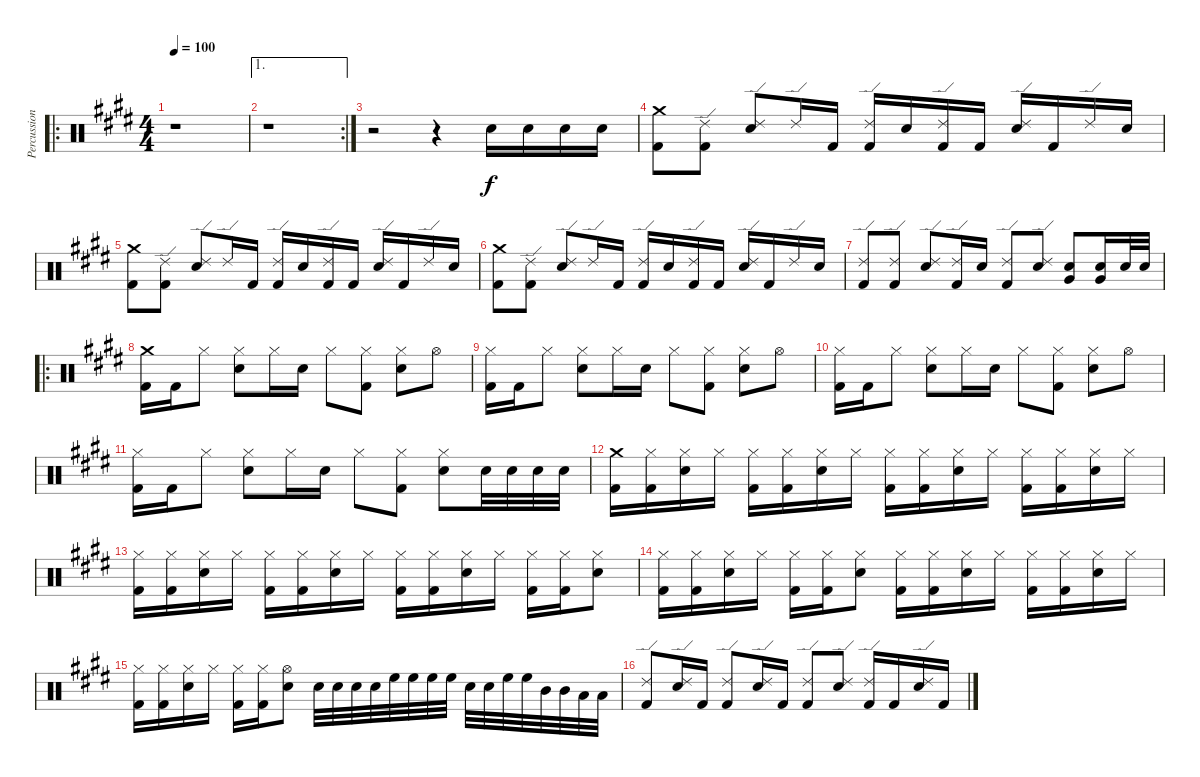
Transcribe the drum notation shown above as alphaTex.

\track ("Percussion" "Percussion") {instrument percussion}
\staff {score}
\articulation defaults
\ro
\ts (4 4)
\tempo 100
\clef neutral
\ks e
r.1{dy f} |
\ae 1
\rc 2
r.1 |
r.2 r.4 "Snare (hit) 2".16 "Snare (hit) 2".16 "Snare (hit) 2".16 "Snare (hit) 2".16 |
("Crash medium (hit)" "Kick (hit) 2").8 ("Ride (edge) 2" "Kick (hit) 2").8 ("Ride (edge) 2" "Snare (hit) 2").8 "Ride (edge) 2".16 "Kick (hit) 2".16 ("Ride (edge) 2" "Kick (hit) 2").16 "Snare (hit) 2".16 ("Ride (edge) 2" "Kick (hit) 2").16 "Kick (hit) 2".16 ("Ride (edge) 2" "Snare (hit) 2").16 "Kick (hit) 2".16 "Ride (edge) 2".16 "Snare (hit) 2".16 |
("Crash medium (hit)" "Kick (hit) 2").8 ("Ride (edge) 2" "Kick (hit) 2").8 ("Ride (edge) 2" "Snare (hit) 2").8 "Ride (edge) 2".16 "Kick (hit) 2".16 ("Ride (edge) 2" "Kick (hit) 2").16 "Snare (hit) 2".16 ("Ride (edge) 2" "Kick (hit) 2").16 "Kick (hit) 2".16 ("Ride (edge) 2" "Snare (hit) 2").16 "Kick (hit) 2".16 "Ride (edge) 2".16 "Snare (hit) 2".16 |
("Crash medium (hit)" "Kick (hit) 2").8 ("Ride (edge) 2" "Kick (hit) 2").8 ("Ride (edge) 2" "Snare (hit) 2").8 "Ride (edge) 2".16 "Kick (hit) 2".16 ("Ride (edge) 2" "Kick (hit) 2").16 "Snare (hit) 2".16 ("Ride (edge) 2" "Kick (hit) 2").16 "Kick (hit) 2".16 ("Ride (edge) 2" "Snare (hit) 2").16 "Kick (hit) 2".16 "Ride (edge) 2".16 "Snare (hit) 2".16 |
("Ride (edge) 2" "Kick (hit) 2").8 ("Ride (edge) 2" "Kick (hit) 2").8 ("Ride (edge) 2" "Snare (hit) 2").8 ("Ride (edge) 2" "Kick (hit) 2").16 "Snare (hit) 2".16 ("Ride (edge) 2" "Kick (hit) 2").8 ("Ride (edge) 2" "Snare (hit) 2").8 ("Snare (hit) 2" "Very Low Tom (hit)").8 ("Snare (hit) 2" "Very Low Tom (hit)").16 "Snare (hit) 2".32 "Snare (hit) 2".32 |
\ro
("Crash medium (hit)" "Kick (hit) 2").16 "Kick (hit) 2".16 "Hi-Hat (closed)".8 ("Hi-Hat (closed)" "Snare (hit) 2").8 "Hi-Hat (closed)".16 "Snare (hit) 2".16 "Hi-Hat (closed)".8 ("Hi-Hat (closed)" "Kick (hit) 2").8 ("Hi-Hat (closed)" "Snare (hit) 2").8 "Hi-Hat (open)".8 |
("Hi-Hat (closed)" "Kick (hit) 2").16 "Kick (hit) 2".16 "Hi-Hat (closed)".8 ("Hi-Hat (closed)" "Snare (hit) 2").8 "Hi-Hat (closed)".16 "Snare (hit) 2".16 "Hi-Hat (closed)".8 ("Hi-Hat (closed)" "Kick (hit) 2").8 ("Hi-Hat (closed)" "Snare (hit) 2").8 "Hi-Hat (open)".8 |
("Hi-Hat (closed)" "Kick (hit) 2").16 "Kick (hit) 2".16 "Hi-Hat (closed)".8 ("Hi-Hat (closed)" "Snare (hit) 2").8 "Hi-Hat (closed)".16 "Snare (hit) 2".16 "Hi-Hat (closed)".8 ("Hi-Hat (closed)" "Kick (hit) 2").8 ("Hi-Hat (closed)" "Snare (hit) 2").8 "Hi-Hat (open)".8 |
("Hi-Hat (closed)" "Kick (hit) 2").16 "Kick (hit) 2".16 "Hi-Hat (closed)".8 ("Hi-Hat (closed)" "Snare (hit) 2").8 "Hi-Hat (closed)".16 "Snare (hit) 2".16 "Hi-Hat (closed)".8 ("Hi-Hat (closed)" "Kick (hit) 2").8 ("Hi-Hat (closed)" "Snare (hit) 2").8 "Snare (hit) 2".32 "Snare (hit) 2".32 "Snare (hit) 2".32 "Snare (hit) 2".32 |
("Crash medium (hit)" "Kick (hit) 2").16 ("Hi-Hat (closed)" "Kick (hit) 2").16 ("Hi-Hat (closed)" "Snare (hit) 2").16 "Hi-Hat (closed)".16 ("Hi-Hat (closed)" "Kick (hit) 2").16 ("Hi-Hat (closed)" "Kick (hit) 2").16 ("Hi-Hat (closed)" "Snare (hit) 2").16 "Hi-Hat (closed)".16 ("Hi-Hat (closed)" "Kick (hit) 2").16 ("Hi-Hat (closed)" "Kick (hit) 2").16 ("Hi-Hat (closed)" "Snare (hit) 2").16 "Hi-Hat (closed)".16 ("Hi-Hat (closed)" "Kick (hit) 2").16 ("Hi-Hat (closed)" "Kick (hit) 2").16 ("Hi-Hat (closed)" "Snare (hit) 2").16 "Hi-Hat (closed)".16 |
("Hi-Hat (closed)" "Kick (hit) 2").16 ("Hi-Hat (closed)" "Kick (hit) 2").16 ("Hi-Hat (closed)" "Snare (hit) 2").16 "Hi-Hat (closed)".16 ("Hi-Hat (closed)" "Kick (hit) 2").16 ("Hi-Hat (closed)" "Kick (hit) 2").16 ("Hi-Hat (closed)" "Snare (hit) 2").16 "Hi-Hat (closed)".16 ("Hi-Hat (closed)" "Kick (hit) 2").16 ("Hi-Hat (closed)" "Kick (hit) 2").16 ("Hi-Hat (closed)" "Snare (hit) 2").16 "Hi-Hat (closed)".16 ("Hi-Hat (closed)" "Kick (hit) 2").16 ("Hi-Hat (closed)" "Kick (hit) 2").16 ("Hi-Hat (closed)" "Snare (hit) 2").8 |
("Hi-Hat (closed)" "Kick (hit) 2").16 ("Hi-Hat (closed)" "Kick (hit) 2").16 ("Hi-Hat (closed)" "Snare (hit) 2").16 "Hi-Hat (closed)".16 ("Hi-Hat (closed)" "Kick (hit) 2").16 ("Hi-Hat (closed)" "Kick (hit) 2").16 ("Hi-Hat (closed)" "Snare (hit) 2").8 ("Hi-Hat (closed)" "Kick (hit) 2").16 ("Hi-Hat (closed)" "Kick (hit) 2").16 ("Hi-Hat (closed)" "Snare (hit) 2").16 "Hi-Hat (closed)".16 ("Hi-Hat (closed)" "Kick (hit) 2").16 ("Hi-Hat (closed)" "Kick (hit) 2").16 ("Hi-Hat (closed)" "Snare (hit) 2").16 "Hi-Hat (closed)".16 |
("Hi-Hat (closed)" "Kick (hit) 2").16 ("Hi-Hat (closed)" "Kick (hit) 2").16 ("Hi-Hat (closed)" "Snare (hit) 2").16 "Hi-Hat (closed)".16 ("Hi-Hat (closed)" "Kick (hit) 2").16 ("Hi-Hat (closed)" "Kick (hit) 2").16 ("Hi-Hat (open)" "Snare (hit) 2").8 "Snare (hit) 2".32 "Snare (hit) 2".32 "Snare (hit) 2".32 "Snare (hit) 2".32 "High Floor Tom (hit)".32 "High Floor Tom (hit)".32 "High Floor Tom (hit)".32 "High Floor Tom (hit)".32 "Snare (hit) 2".32 "Snare (hit) 2".32 "High Floor Tom (hit)".32 "High Floor Tom (hit)".32 "Mid Tom (hit)".32 "Mid Tom (hit)".32 "Low Floor Tom (hit)".32 "Low Floor Tom (hit)".32 |
("Ride (edge) 2" "Kick (hit) 2").8 ("Ride (edge) 2" "Snare (hit) 2").16 "Kick (hit) 2".16 ("Ride (edge) 2" "Kick (hit) 2").8 ("Ride (edge) 2" "Snare (hit) 2").16 "Kick (hit) 2".16 ("Ride (edge) 2" "Kick (hit) 2").8 ("Ride (edge) 2" "Snare (hit) 2").8 ("Ride (edge) 2" "Kick (hit) 2").16 "Kick (hit) 2".16 ("Ride (edge) 2" "Snare (hit) 2").16 "Kick (hit) 2".16
